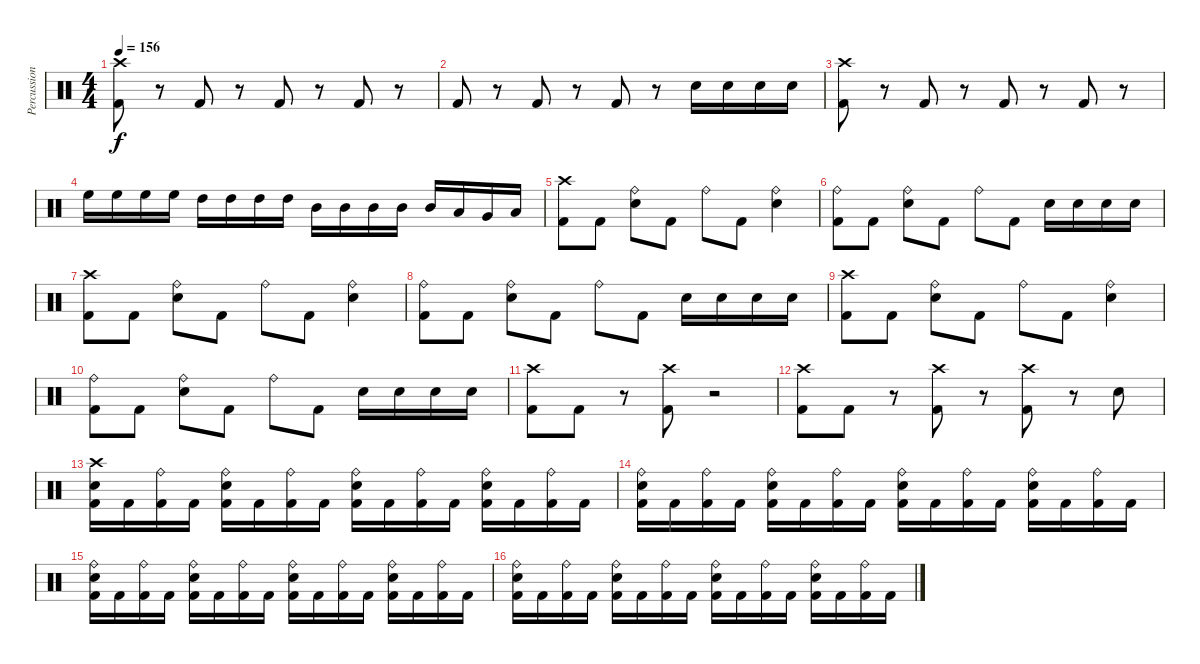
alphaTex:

\track ("Percussion" "Percussion") {instrument percussion}
\staff {score}
\articulation defaults
\ts (4 4)
\tempo 156
\clef neutral
\ks c
("Crash high (hit)" "Kick (hit) 2").8{dy f} r.8 "Kick (hit) 2".8 r.8 "Kick (hit) 2".8 r.8 "Kick (hit) 2".8 r.8 |
"Kick (hit) 2".8 r.8 "Kick (hit) 2".8 r.8 "Kick (hit) 2".8 r.8 "Snare (hit) 2".16 "Snare (hit) 2".16 "Snare (hit) 2".16 "Snare (hit) 2".16 |
("Crash high (hit)" "Kick (hit) 2").8 r.8 "Kick (hit) 2".8 r.8 "Kick (hit) 2".8 r.8 "Kick (hit) 2".8 r.8 |
"High Floor Tom (hit)".16 "High Floor Tom (hit)".16 "High Floor Tom (hit)".16 "High Floor Tom (hit)".16 "High Tom (hit)".16 "High Tom (hit)".16 "High Tom (hit)".16 "High Tom (hit)".16 "Mid Tom (hit)".16 "Mid Tom (hit)".16 "Mid Tom (hit)".16 "Mid Tom (hit)".16 "Mid Tom (hit)".16 "Low Tom (hit)".16 "Very Low Tom (hit)".16 "Low Floor Tom (hit)".16 |
("Crash high (hit)" "Kick (hit) 2").8 "Kick (hit) 2".8 ("Ride (bell)" "Snare (hit) 2").8 "Kick (hit) 2".8 "Ride (bell)".8 "Kick (hit) 2".8 ("Ride (bell)" "Snare (hit) 2").4 |
("Ride (bell)" "Kick (hit) 2").8 "Kick (hit) 2".8 ("Ride (bell)" "Snare (hit) 2").8 "Kick (hit) 2".8 "Ride (bell)".8 "Kick (hit) 2".8 "Snare (hit) 2".16 "Snare (hit) 2".16 "Snare (hit) 2".16 "Snare (hit) 2".16 |
("Crash high (hit)" "Kick (hit) 2").8 "Kick (hit) 2".8 ("Ride (bell)" "Snare (hit) 2").8 "Kick (hit) 2".8 "Ride (bell)".8 "Kick (hit) 2".8 ("Ride (bell)" "Snare (hit) 2").4 |
("Ride (bell)" "Kick (hit) 2").8 "Kick (hit) 2".8 ("Ride (bell)" "Snare (hit) 2").8 "Kick (hit) 2".8 "Ride (bell)".8 "Kick (hit) 2".8 "Snare (hit) 2".16 "Snare (hit) 2".16 "Snare (hit) 2".16 "Snare (hit) 2".16 |
("Crash high (hit)" "Kick (hit) 2").8 "Kick (hit) 2".8 ("Ride (bell)" "Snare (hit) 2").8 "Kick (hit) 2".8 "Ride (bell)".8 "Kick (hit) 2".8 ("Ride (bell)" "Snare (hit) 2").4 |
("Ride (bell)" "Kick (hit) 2").8 "Kick (hit) 2".8 ("Ride (bell)" "Snare (hit) 2").8 "Kick (hit) 2".8 "Ride (bell)".8 "Kick (hit) 2".8 "Snare (hit) 2".16 "Snare (hit) 2".16 "Snare (hit) 2".16 "Snare (hit) 2".16 |
("Crash high (hit)" "Kick (hit) 2").8 "Kick (hit) 2".8 r.8 ("Crash high (hit)" "Kick (hit) 2").8 r.2 |
("Crash high (hit)" "Kick (hit) 2").8 "Kick (hit) 2".8 r.8 ("Crash high (hit)" "Kick (hit) 2").8 r.8 ("Crash high (hit)" "Kick (hit) 2").8 r.8 "Snare (hit) 2".8 |
("Crash high (hit)" "Snare (hit) 2" "Kick (hit) 2").16 "Kick (hit) 2".16 ("Ride (bell)" "Kick (hit) 2").16 "Kick (hit) 2".16 ("Ride (bell)" "Snare (hit) 2" "Kick (hit) 2").16 "Kick (hit) 2".16 ("Ride (bell)" "Kick (hit) 2").16 "Kick (hit) 2".16 ("Ride (bell)" "Snare (hit) 2" "Kick (hit) 2").16 "Kick (hit) 2".16 ("Ride (bell)" "Kick (hit) 2").16 "Kick (hit) 2".16 ("Ride (bell)" "Snare (hit) 2" "Kick (hit) 2").16 "Kick (hit) 2".16 ("Ride (bell)" "Kick (hit) 2").16 "Kick (hit) 2".16 |
("Ride (bell)" "Snare (hit) 2" "Kick (hit) 2").16 "Kick (hit) 2".16 ("Ride (bell)" "Kick (hit) 2").16 "Kick (hit) 2".16 ("Ride (bell)" "Snare (hit) 2" "Kick (hit) 2").16 "Kick (hit) 2".16 ("Ride (bell)" "Kick (hit) 2").16 "Kick (hit) 2".16 ("Ride (bell)" "Snare (hit) 2" "Kick (hit) 2").16 "Kick (hit) 2".16 ("Ride (bell)" "Kick (hit) 2").16 "Kick (hit) 2".16 ("Ride (bell)" "Snare (hit) 2" "Kick (hit) 2").16 "Kick (hit) 2".16 ("Ride (bell)" "Kick (hit) 2").16 "Kick (hit) 2".16 |
("Ride (bell)" "Snare (hit) 2" "Kick (hit) 2").16 "Kick (hit) 2".16 ("Ride (bell)" "Kick (hit) 2").16 "Kick (hit) 2".16 ("Ride (bell)" "Snare (hit) 2" "Kick (hit) 2").16 "Kick (hit) 2".16 ("Ride (bell)" "Kick (hit) 2").16 "Kick (hit) 2".16 ("Ride (bell)" "Snare (hit) 2" "Kick (hit) 2").16 "Kick (hit) 2".16 ("Ride (bell)" "Kick (hit) 2").16 "Kick (hit) 2".16 ("Ride (bell)" "Snare (hit) 2" "Kick (hit) 2").16 "Kick (hit) 2".16 ("Ride (bell)" "Kick (hit) 2").16 "Kick (hit) 2".16 |
("Ride (bell)" "Snare (hit) 2" "Kick (hit) 2").16 "Kick (hit) 2".16 ("Ride (bell)" "Kick (hit) 2").16 "Kick (hit) 2".16 ("Ride (bell)" "Snare (hit) 2" "Kick (hit) 2").16 "Kick (hit) 2".16 ("Ride (bell)" "Kick (hit) 2").16 "Kick (hit) 2".16 ("Ride (bell)" "Snare (hit) 2" "Kick (hit) 2").16 "Kick (hit) 2".16 ("Ride (bell)" "Kick (hit) 2").16 "Kick (hit) 2".16 ("Ride (bell)" "Snare (hit) 2" "Kick (hit) 2").16 "Kick (hit) 2".16 ("Ride (bell)" "Kick (hit) 2").16 "Kick (hit) 2".16
